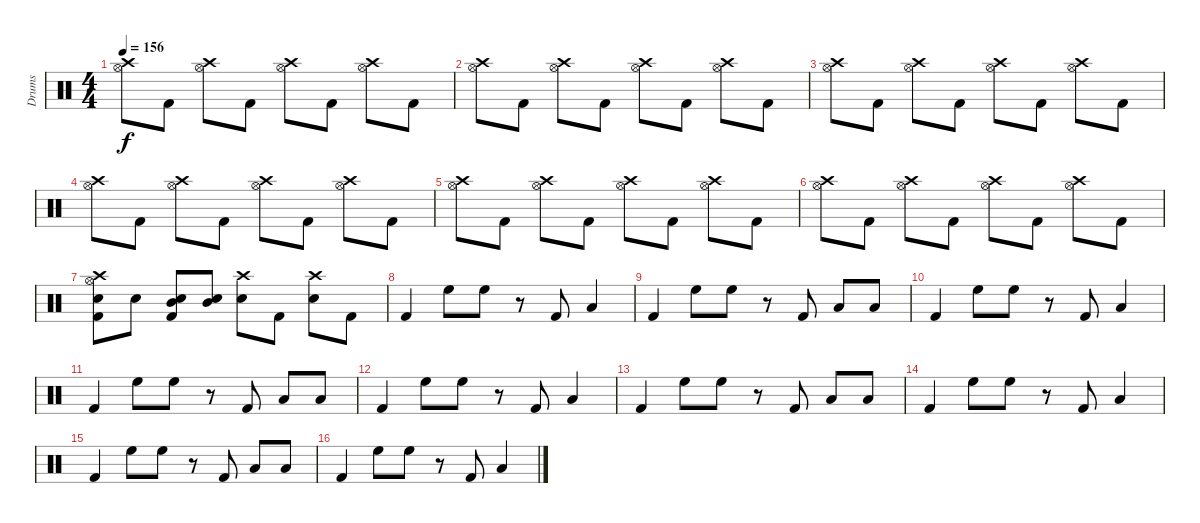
\track ("Drums" "Drums") {instrument percussion}
\staff {score}
\articulation defaults
\ts (4 4)
\tempo 156
\clef neutral
\ks c
("Crash high (hit)" "Hi-Hat (open)").8{dy f} "Kick (hit) 2".8 ("Crash high (hit)" "Hi-Hat (open)").8 "Kick (hit) 2".8 ("Crash high (hit)" "Hi-Hat (open)").8 "Kick (hit) 2".8 ("Crash high (hit)" "Hi-Hat (open)").8 "Kick (hit) 2".8 |
("Crash high (hit)" "Hi-Hat (open)").8 "Kick (hit) 2".8 ("Crash high (hit)" "Hi-Hat (open)").8 "Kick (hit) 2".8 ("Crash high (hit)" "Hi-Hat (open)").8 "Kick (hit) 2".8 ("Crash high (hit)" "Hi-Hat (open)").8 "Kick (hit) 2".8 |
("Crash high (hit)" "Hi-Hat (open)").8 "Kick (hit) 2".8 ("Crash high (hit)" "Hi-Hat (open)").8 "Kick (hit) 2".8 ("Crash high (hit)" "Hi-Hat (open)").8 "Kick (hit) 2".8 ("Crash high (hit)" "Hi-Hat (open)").8 "Kick (hit) 2".8 |
("Crash high (hit)" "Hi-Hat (open)").8 "Kick (hit) 2".8 ("Crash high (hit)" "Hi-Hat (open)").8 "Kick (hit) 2".8 ("Crash high (hit)" "Hi-Hat (open)").8 "Kick (hit) 2".8 ("Crash high (hit)" "Hi-Hat (open)").8 "Kick (hit) 2".8 |
("Crash high (hit)" "Hi-Hat (open)").8 "Kick (hit) 2".8 ("Crash high (hit)" "Hi-Hat (open)").8 "Kick (hit) 2".8 ("Crash high (hit)" "Hi-Hat (open)").8 "Kick (hit) 2".8 ("Crash high (hit)" "Hi-Hat (open)").8 "Kick (hit) 2".8 |
("Crash high (hit)" "Hi-Hat (open)").8 "Kick (hit) 2".8 ("Crash high (hit)" "Hi-Hat (open)").8 "Kick (hit) 2".8 ("Crash high (hit)" "Hi-Hat (open)").8 "Kick (hit) 2".8 ("Crash high (hit)" "Hi-Hat (open)").8 "Kick (hit) 2".8 |
("Crash high (hit)" "Hi-Hat (open)" "Snare (hit) 2" "Kick (hit) 2").8 "Snare (hit) 2".8 ("Mid Tom (hit)" "Snare (hit) 2" "Kick (hit) 2").8 ("Mid Tom (hit)" "Snare (hit) 2").8 ("Crash high (hit)" "Snare (hit) 2").8 "Kick (hit) 2".8 ("Crash high (hit)" "Snare (hit) 2").8 "Kick (hit) 2".8 |
"Kick (hit) 2".4 "High Floor Tom (hit)".8 "High Floor Tom (hit)".8 r.8 "Kick (hit) 2".8 "Low Tom (hit)".4 |
"Kick (hit) 2".4 "High Floor Tom (hit)".8 "High Floor Tom (hit)".8 r.8 "Kick (hit) 2".8 "Low Tom (hit)".8 "Low Tom (hit)".8 |
"Kick (hit) 2".4 "High Floor Tom (hit)".8 "High Floor Tom (hit)".8 r.8 "Kick (hit) 2".8 "Low Tom (hit)".4 |
"Kick (hit) 2".4 "High Floor Tom (hit)".8 "High Floor Tom (hit)".8 r.8 "Kick (hit) 2".8 "Low Tom (hit)".8 "Low Tom (hit)".8 |
"Kick (hit) 2".4 "High Floor Tom (hit)".8 "High Floor Tom (hit)".8 r.8 "Kick (hit) 2".8 "Low Tom (hit)".4 |
"Kick (hit) 2".4 "High Floor Tom (hit)".8 "High Floor Tom (hit)".8 r.8 "Kick (hit) 2".8 "Low Tom (hit)".8 "Low Tom (hit)".8 |
"Kick (hit) 2".4 "High Floor Tom (hit)".8 "High Floor Tom (hit)".8 r.8 "Kick (hit) 2".8 "Low Tom (hit)".4 |
"Kick (hit) 2".4 "High Floor Tom (hit)".8 "High Floor Tom (hit)".8 r.8 "Kick (hit) 2".8 "Low Tom (hit)".8 "Low Tom (hit)".8 |
"Kick (hit) 2".4 "High Floor Tom (hit)".8 "High Floor Tom (hit)".8 r.8 "Kick (hit) 2".8 "Low Tom (hit)".4
